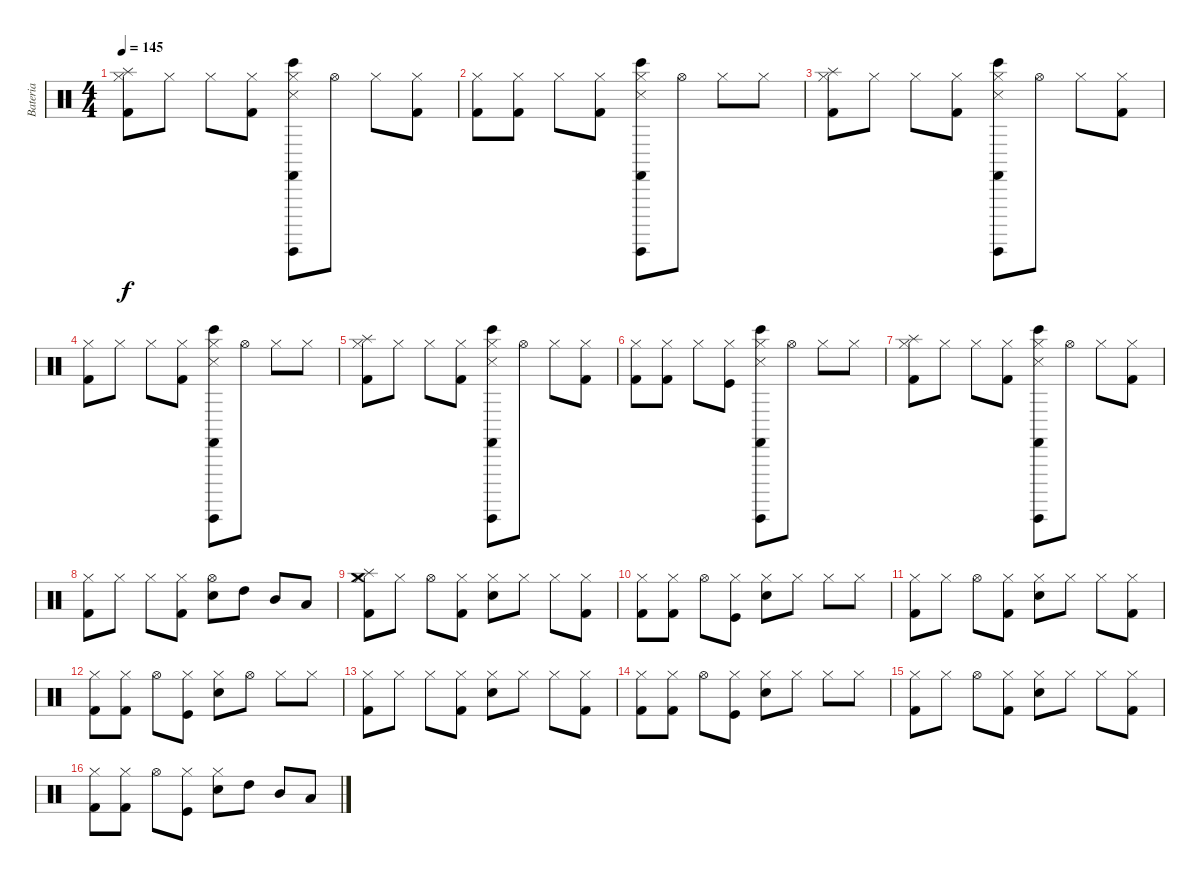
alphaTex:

\track ("Bateria" "Bateria") {instrument percussion}
\staff {score}
\articulation defaults
\ts (4 4)
\tempo 145
\clef neutral
\ks c
("Kick (hit) 2" "Hi-Hat (closed)" "Splash (hit)").8{dy f} "Hi-Hat (closed)".8 "Hi-Hat (closed)".8 ("Kick (hit) 2" "Hi-Hat (closed)").8 ("Snare (side stick) 3" "Hi-Hat (closed)" "Guiro (hit)" "Castanets (hit)" "Bongo High (hit)").8 "Hi-Hat (open)".8 "Hi-Hat (closed)".8 ("Kick (hit) 2" "Hi-Hat (closed)").8 |
("Kick (hit) 2" "Hi-Hat (closed)").8 ("Kick (hit) 2" "Hi-Hat (closed)").8 "Hi-Hat (closed)".8 ("Kick (hit) 2" "Hi-Hat (closed)").8 ("Snare (side stick) 3" "Hi-Hat (closed)" "Guiro (hit)" "Castanets (hit)" "Bongo High (hit)").8 "Hi-Hat (open)".8 "Hi-Hat (closed)".8 "Hi-Hat (closed)".8 |
("Kick (hit) 2" "Hi-Hat (closed)" "Splash (hit)").8 "Hi-Hat (closed)".8 "Hi-Hat (closed)".8 ("Kick (hit) 2" "Hi-Hat (closed)").8 ("Snare (side stick) 3" "Hi-Hat (closed)" "Guiro (hit)" "Castanets (hit)" "Bongo High (hit)").8 "Hi-Hat (open)".8 "Hi-Hat (closed)".8 ("Kick (hit) 2" "Hi-Hat (closed)").8 |
("Kick (hit) 2" "Hi-Hat (closed)").8 "Hi-Hat (closed)".8 "Hi-Hat (closed)".8 ("Kick (hit) 2" "Hi-Hat (closed)").8 ("Snare (side stick) 3" "Hi-Hat (closed)" "Guiro (hit)" "Castanets (hit)" "Bongo High (hit)").8 "Hi-Hat (open)".8 "Hi-Hat (closed)".8 "Hi-Hat (closed)".8 |
("Kick (hit) 2" "Hi-Hat (closed)" "Splash (hit)").8 "Hi-Hat (closed)".8 "Hi-Hat (closed)".8 ("Kick (hit) 2" "Hi-Hat (closed)").8 ("Snare (side stick) 3" "Hi-Hat (closed)" "Guiro (hit)" "Castanets (hit)" "Bongo High (hit)").8 "Hi-Hat (open)".8 "Hi-Hat (closed)".8 ("Kick (hit) 2" "Hi-Hat (closed)").8 |
("Kick (hit) 2" "Hi-Hat (closed)").8 ("Kick (hit) 2" "Hi-Hat (closed)").8 "Hi-Hat (closed)".8 ("Kick (hit)" "Hi-Hat (closed)").8 ("Snare (side stick) 3" "Hi-Hat (closed)" "Guiro (hit)" "Castanets (hit)" "Bongo High (hit)").8 "Hi-Hat (open)".8 "Hi-Hat (closed)".8 "Hi-Hat (closed)".8 |
("Kick (hit) 2" "Hi-Hat (closed)" "Splash (hit)").8 "Hi-Hat (closed)".8 "Hi-Hat (closed)".8 ("Kick (hit) 2" "Hi-Hat (closed)").8 ("Snare (side stick) 3" "Hi-Hat (closed)" "Guiro (hit)" "Castanets (hit)" "Bongo High (hit)").8 "Hi-Hat (open)".8 "Hi-Hat (closed)".8 ("Kick (hit) 2" "Hi-Hat (closed)").8 |
("Kick (hit) 2" "Hi-Hat (closed)").8 "Hi-Hat (closed)".8 "Hi-Hat (closed)".8 ("Kick (hit) 2" "Hi-Hat (closed)").8 ("Electric Snare (hit)" "Hi-Hat (open)").8 "High Tom (hit)".8 "Mid Tom (hit)".8 "Low Tom (hit)".8 |
("Kick (hit) 2" "Hi-Hat (closed)" "Crash medium (hit)" "Splash (hit)").8 "Hi-Hat (closed)".8 "Hi-Hat (open)".8 ("Kick (hit) 2" "Hi-Hat (closed)").8 ("Electric Snare (hit)" "Hi-Hat (closed)").8 "Hi-Hat (closed)".8 "Hi-Hat (closed)".8 ("Kick (hit) 2" "Hi-Hat (closed)").8 |
("Kick (hit) 2" "Hi-Hat (closed)").8 ("Kick (hit) 2" "Hi-Hat (closed)").8 "Hi-Hat (open)".8 ("Kick (hit)" "Hi-Hat (closed)").8 ("Electric Snare (hit)" "Hi-Hat (closed)").8 "Hi-Hat (closed)".8 "Hi-Hat (closed)".8 "Hi-Hat (closed)".8 |
("Kick (hit) 2" "Hi-Hat (closed)").8 "Hi-Hat (closed)".8 "Hi-Hat (open)".8 ("Kick (hit) 2" "Hi-Hat (closed)").8 ("Electric Snare (hit)" "Hi-Hat (closed)").8 "Hi-Hat (closed)".8 "Hi-Hat (closed)".8 ("Kick (hit) 2" "Hi-Hat (closed)").8 |
("Kick (hit) 2" "Hi-Hat (closed)").8 ("Kick (hit) 2" "Hi-Hat (closed)").8 "Hi-Hat (open)".8 ("Kick (hit)" "Hi-Hat (closed)").8 ("Electric Snare (hit)" "Hi-Hat (closed)").8 "Hi-Hat (open)".8 "Hi-Hat (closed)".8 "Hi-Hat (closed)".8 |
("Kick (hit) 2" "Hi-Hat (closed)").8 "Hi-Hat (closed)".8 "Hi-Hat (closed)".8 ("Kick (hit) 2" "Hi-Hat (closed)").8 ("Electric Snare (hit)" "Hi-Hat (closed)").8 "Hi-Hat (closed)".8 "Hi-Hat (closed)".8 ("Kick (hit) 2" "Hi-Hat (closed)").8 |
("Kick (hit) 2" "Hi-Hat (closed)").8 ("Kick (hit) 2" "Hi-Hat (closed)").8 "Hi-Hat (open)".8 ("Kick (hit)" "Hi-Hat (closed)").8 ("Electric Snare (hit)" "Hi-Hat (closed)").8 "Hi-Hat (closed)".8 "Hi-Hat (closed)".8 "Hi-Hat (closed)".8 |
("Kick (hit) 2" "Hi-Hat (closed)").8 "Hi-Hat (closed)".8 "Hi-Hat (open)".8 ("Kick (hit) 2" "Hi-Hat (closed)").8 ("Electric Snare (hit)" "Hi-Hat (closed)").8 "Hi-Hat (closed)".8 "Hi-Hat (closed)".8 ("Kick (hit) 2" "Hi-Hat (closed)").8 |
("Kick (hit) 2" "Hi-Hat (closed)").8 ("Kick (hit) 2" "Hi-Hat (closed)").8 "Hi-Hat (open)".8 ("Kick (hit)" "Hi-Hat (closed)").8 ("Electric Snare (hit)" "Hi-Hat (closed)").8 "High Tom (hit)".8 "Mid Tom (hit)".8 "Low Tom (hit)".8
